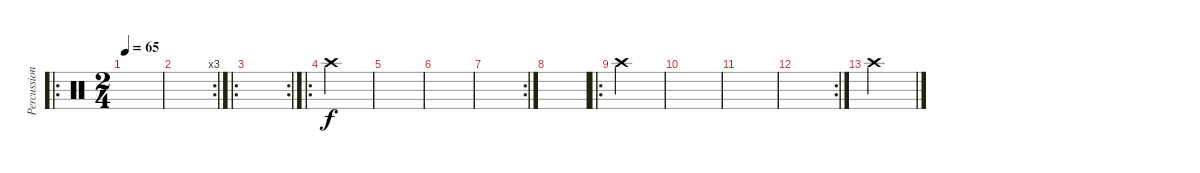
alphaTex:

\track ("Percussions" "Percussion") {instrument percussion}
\staff {score}
\articulation defaults
\ro
\ts (2 4)
\tempo 65
\clef neutral
\ks c
|
\rc 3
|
\ro
\rc 2
|
\ro "Crash high (hit)".2
|
|
|
\rc 2
|
|
\ro "Crash high (hit)".2
|
|
|
\rc 2
|
"Crash high (hit)".2
